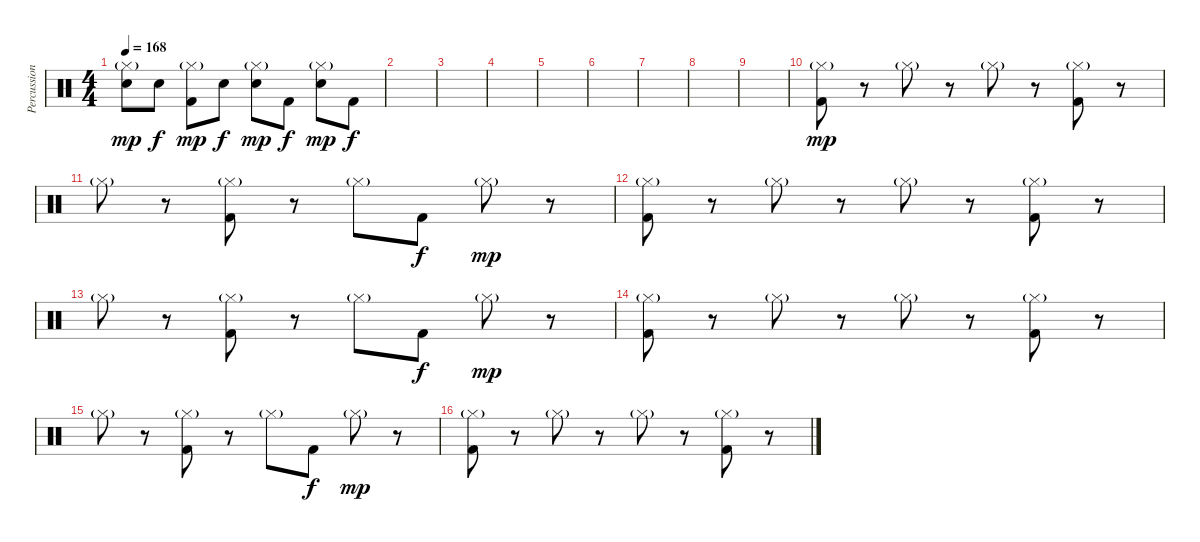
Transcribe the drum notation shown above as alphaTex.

\track ("Percussion" "Percussion") {instrument percussion}
\staff {score}
\articulation defaults
\ts (4 4)
\tempo 168
\clef neutral
\ks c
("Hi-Hat (closed)"{g} "Hand Clap (hit)").8{dy mp} "Hand Clap (hit)".8{dy f} ("Hi-Hat (closed)"{g} "Kick (hit) 2").8{dy mp} "Hand Clap (hit)".8{dy f} ("Hi-Hat (closed)"{g} "Hand Clap (hit)").8{dy mp} "Kick (hit) 2".8{dy f} ("Hi-Hat (closed)"{g} "Hand Clap (hit)").8{dy mp} "Kick (hit) 2".8{dy f} |
|
|
|
|
|
|
|
|
("Hi-Hat (closed)"{g} "Kick (hit) 2").8{dy mp} r.8 "Hi-Hat (closed)"{g}.8 r.8 "Hi-Hat (closed)"{g}.8 r.8 ("Hi-Hat (closed)"{g} "Kick (hit) 2").8 r.8 |
"Hi-Hat (closed)"{g}.8 r.8 ("Hi-Hat (closed)"{g} "Kick (hit) 2").8 r.8 "Hi-Hat (closed)"{g}.8 "Kick (hit) 2".8{dy f} "Hi-Hat (closed)"{g}.8{dy mp} r.8 |
("Hi-Hat (closed)"{g} "Kick (hit) 2").8 r.8 "Hi-Hat (closed)"{g}.8 r.8 "Hi-Hat (closed)"{g}.8 r.8 ("Hi-Hat (closed)"{g} "Kick (hit) 2").8 r.8 |
"Hi-Hat (closed)"{g}.8 r.8 ("Hi-Hat (closed)"{g} "Kick (hit) 2").8 r.8 "Hi-Hat (closed)"{g}.8 "Kick (hit) 2".8{dy f} "Hi-Hat (closed)"{g}.8{dy mp} r.8 |
("Hi-Hat (closed)"{g} "Kick (hit) 2").8 r.8 "Hi-Hat (closed)"{g}.8 r.8 "Hi-Hat (closed)"{g}.8 r.8 ("Hi-Hat (closed)"{g} "Kick (hit) 2").8 r.8 |
"Hi-Hat (closed)"{g}.8 r.8 ("Hi-Hat (closed)"{g} "Kick (hit) 2").8 r.8 "Hi-Hat (closed)"{g}.8 "Kick (hit) 2".8{dy f} "Hi-Hat (closed)"{g}.8{dy mp} r.8 |
("Hi-Hat (closed)"{g} "Kick (hit) 2").8 r.8 "Hi-Hat (closed)"{g}.8 r.8 "Hi-Hat (closed)"{g}.8 r.8 ("Hi-Hat (closed)"{g} "Kick (hit) 2").8 r.8
